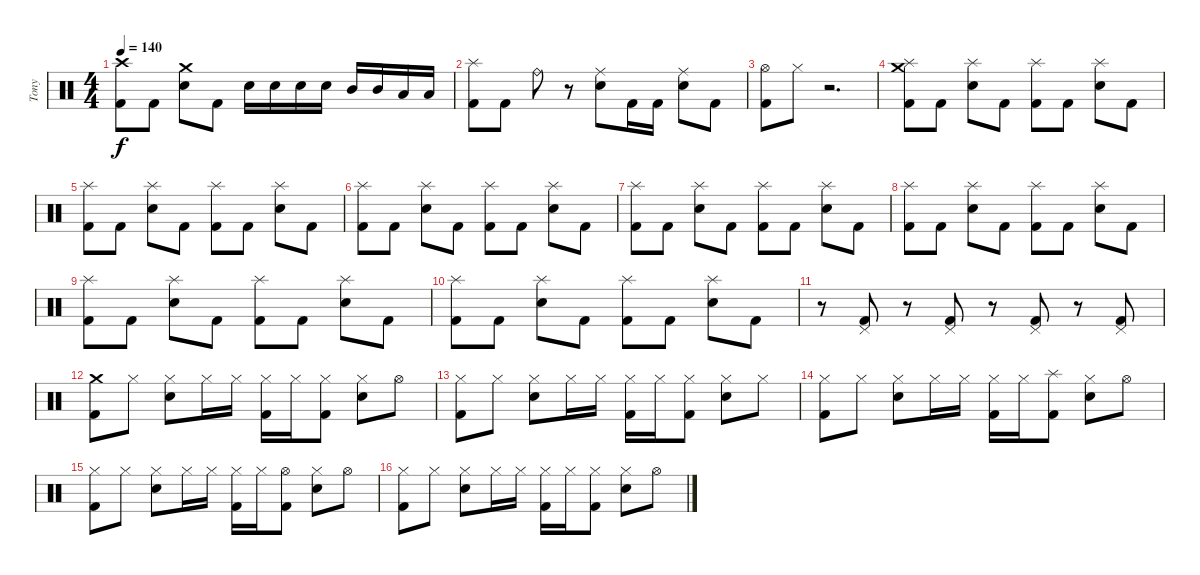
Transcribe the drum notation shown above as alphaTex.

\track ("Tony" "Tony") {instrument percussion}
\staff {score}
\articulation defaults
\ts (4 4)
\tempo 140
\clef neutral
\ks c
("Kick (hit) 2" "Crash high (hit)").8{dy f} "Kick (hit) 2".8 ("Electric Snare (hit)" "Crash medium (hit)").8 "Kick (hit) 2".8 "Electric Snare (hit)".16 "Electric Snare (hit)".16 "Electric Snare (hit)".16 "Electric Snare (hit)".16 "Mid Tom (hit)".16 "Mid Tom (hit)".16 "Low Tom (hit)".16 "Low Tom (hit)".16 |
("Splash (hit)" "Kick (hit) 2").8 "Kick (hit) 2".8 "Ride (bell)".8 r.8 ("Ride (middle)" "Electric Snare (hit)").8 "Kick (hit) 2".16 "Kick (hit) 2".16 ("Ride (middle)" "Electric Snare (hit)").8 "Kick (hit) 2".8 |
("Kick (hit) 2" "Hi-Hat (open)").8 "Hi-Hat (closed)".8 r.2{d} |
("Kick (hit) 2" "Splash (hit)" "Crash medium (hit)").8 "Kick (hit) 2".8 ("Electric Snare (hit)" "Splash (hit)").8 "Kick (hit) 2".8 ("Kick (hit) 2" "Splash (hit)").8 "Kick (hit) 2".8 ("Electric Snare (hit)" "Splash (hit)").8 "Kick (hit) 2".8 |
("Kick (hit) 2" "Splash (hit)").8 "Kick (hit) 2".8 ("Electric Snare (hit)" "Splash (hit)").8 "Kick (hit) 2".8 ("Kick (hit) 2" "Splash (hit)").8 "Kick (hit) 2".8 ("Electric Snare (hit)" "Splash (hit)").8 "Kick (hit) 2".8 |
("Kick (hit) 2" "Splash (hit)").8 "Kick (hit) 2".8 ("Electric Snare (hit)" "Splash (hit)").8 "Kick (hit) 2".8 ("Kick (hit) 2" "Splash (hit)").8 "Kick (hit) 2".8 ("Electric Snare (hit)" "Splash (hit)").8 "Kick (hit) 2".8 |
("Kick (hit) 2" "Splash (hit)").8 "Kick (hit) 2".8 ("Electric Snare (hit)" "Splash (hit)").8 "Kick (hit) 2".8 ("Kick (hit) 2" "Splash (hit)").8 "Kick (hit) 2".8 ("Electric Snare (hit)" "Splash (hit)").8 "Kick (hit) 2".8 |
("Kick (hit) 2" "Splash (hit)").8 "Kick (hit) 2".8 ("Electric Snare (hit)" "Splash (hit)").8 "Kick (hit) 2".8 ("Kick (hit) 2" "Splash (hit)").8 "Kick (hit) 2".8 ("Electric Snare (hit)" "Splash (hit)").8 "Kick (hit) 2".8 |
("Kick (hit) 2" "Splash (hit)").8 "Kick (hit) 2".8 ("Electric Snare (hit)" "Splash (hit)").8 "Kick (hit) 2".8 ("Kick (hit) 2" "Splash (hit)").8 "Kick (hit) 2".8 ("Electric Snare (hit)" "Splash (hit)").8 "Kick (hit) 2".8 |
("Kick (hit) 2" "Splash (hit)").8 "Kick (hit) 2".8 ("Electric Snare (hit)" "Splash (hit)").8 "Kick (hit) 2".8 ("Kick (hit) 2" "Splash (hit)").8 "Kick (hit) 2".8 ("Electric Snare (hit)" "Splash (hit)").8 "Kick (hit) 2".8 |
r.8 ("Kick (hit) 2" "Pedal Hi-Hat (hit)").8 r.8 ("Kick (hit) 2" "Pedal Hi-Hat (hit)").8 r.8 ("Kick (hit) 2" "Pedal Hi-Hat (hit)").8 r.8 ("Kick (hit) 2" "Pedal Hi-Hat (hit)").8 |
("Crash medium (hit)" "Kick (hit) 2").8 "Hi-Hat (closed)".8 ("Hi-Hat (closed)" "Electric Snare (hit)").8 "Hi-Hat (closed)".16 "Hi-Hat (closed)".16 ("Hi-Hat (closed)" "Kick (hit) 2").16 "Hi-Hat (closed)".16 ("Hi-Hat (closed)" "Kick (hit) 2").8 ("Hi-Hat (closed)" "Electric Snare (hit)").8 "Hi-Hat (open)".8 |
("Hi-Hat (closed)" "Kick (hit) 2").8 "Hi-Hat (closed)".8 ("Hi-Hat (closed)" "Electric Snare (hit)").8 "Hi-Hat (closed)".16 "Hi-Hat (closed)".16 ("Hi-Hat (closed)" "Kick (hit) 2").16 "Hi-Hat (closed)".16 ("Hi-Hat (closed)" "Kick (hit) 2").8 ("Hi-Hat (closed)" "Electric Snare (hit)").8 "Hi-Hat (closed)".8 |
("Hi-Hat (closed)" "Kick (hit) 2").8 "Hi-Hat (closed)".8 ("Hi-Hat (closed)" "Electric Snare (hit)").8 "Hi-Hat (closed)".16 "Hi-Hat (closed)".16 ("Hi-Hat (closed)" "Kick (hit) 2").16 "Hi-Hat (closed)".16 ("Splash (hit)" "Kick (hit) 2").8 ("Hi-Hat (closed)" "Electric Snare (hit)").8 "Hi-Hat (open)".8 |
("Hi-Hat (closed)" "Kick (hit) 2").8 "Hi-Hat (closed)".8 ("Hi-Hat (closed)" "Electric Snare (hit)").8 "Hi-Hat (closed)".16 "Hi-Hat (closed)".16 ("Hi-Hat (closed)" "Kick (hit) 2").16 "Hi-Hat (closed)".16 ("Hi-Hat (open)" "Kick (hit) 2").8 ("Hi-Hat (closed)" "Electric Snare (hit)").8 "Hi-Hat (open)".8 |
("Hi-Hat (closed)" "Kick (hit) 2").8 "Hi-Hat (closed)".8 ("Hi-Hat (closed)" "Electric Snare (hit)").8 "Hi-Hat (closed)".16 "Hi-Hat (closed)".16 ("Hi-Hat (closed)" "Kick (hit) 2").16 "Hi-Hat (closed)".16 ("Hi-Hat (closed)" "Kick (hit) 2").8 ("Hi-Hat (closed)" "Electric Snare (hit)").8 "Hi-Hat (open)".8
